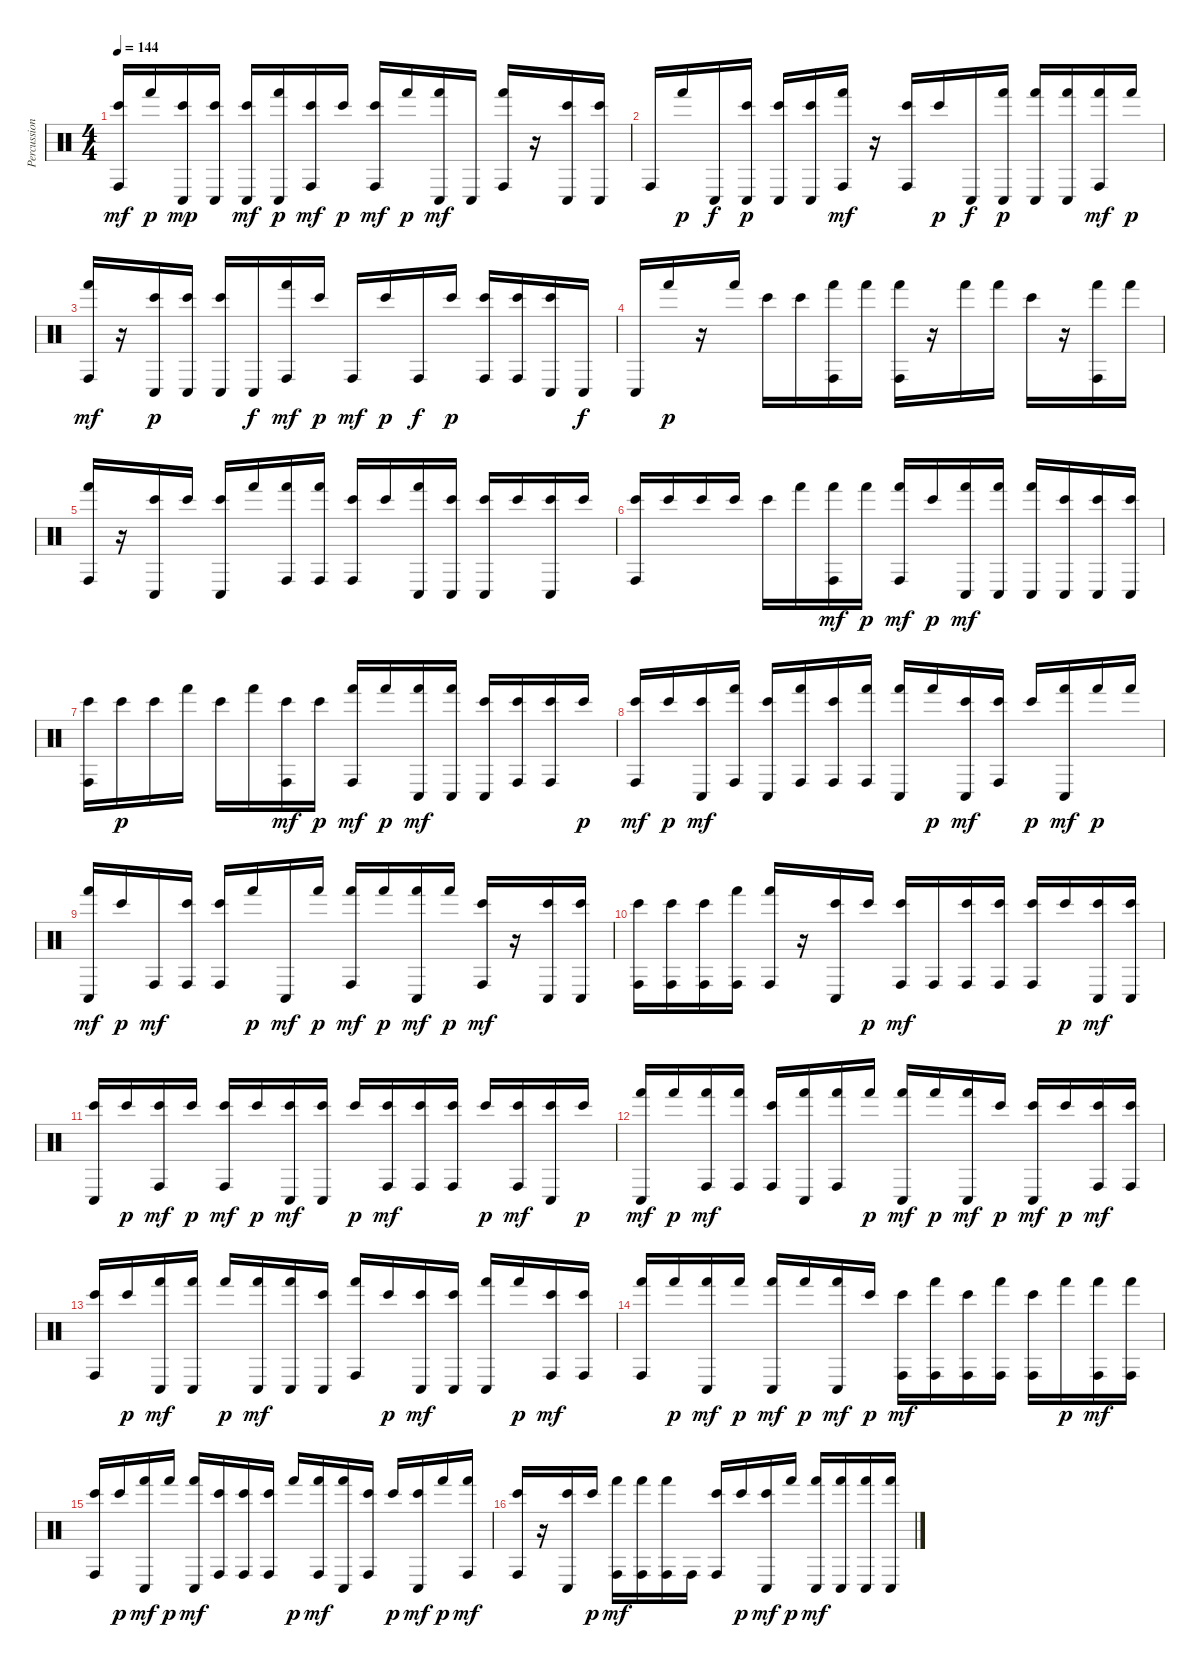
\track ("Percussions" "Percussion") {instrument percussion}
\staff {score}
\articulation defaults
\ts (4 4)
\tempo 144
\clef neutral
\ks c
("Bongo High (hit)" "Conga high (hit)").16{dy mf} "Hand (hit)".16{dy p} ("Bongo High (hit)" "Conga low (hit)").16{dy mp} ("Bongo High (hit)" "Conga low (hit)").16 ("Bongo High (hit)" "Conga low (hit)").16{dy mf} ("Hand (hit)" "Conga low (hit)").16{dy p} ("Bongo High (hit)" "Conga high (hit)").16{dy mf} "Bongo High (hit)".16{dy p} ("Bongo High (hit)" "Conga high (hit)").16{dy mf} "Hand (hit)".16{dy p} ("Hand (hit)" "Conga low (hit)").16{dy mf} "Conga low (hit)".16 ("Hand (hit)" "Conga high (hit)").16 r.16 ("Bongo High (hit)" "Conga low (hit)").16 ("Bongo High (hit)" "Conga low (hit)").16 |
"Conga high (hit)".16 "Hand (hit)".16{dy p} "Conga low (hit)".16{dy f} ("Bongo High (hit)" "Conga low (hit)").16{dy p} ("Bongo High (hit)" "Conga low (hit)").16 ("Bongo High (hit)" "Conga low (hit)").16 ("Hand (hit)" "Conga high (hit)").16{dy mf} r.16 ("Bongo High (hit)" "Conga high (hit)").16 "Bongo High (hit)".16{dy p} "Conga low (hit)".16{dy f} ("Hand (hit)" "Conga low (hit)").16{dy p} ("Hand (hit)" "Conga low (hit)").16 ("Hand (hit)" "Conga low (hit)").16 ("Hand (hit)" "Conga high (hit)").16{dy mf} "Hand (hit)".16{dy p} |
("Hand (hit)" "Conga high (hit)").16{dy mf} r.16 ("Bongo High (hit)" "Conga low (hit)").16{dy p} ("Bongo High (hit)" "Conga low (hit)").16 ("Bongo High (hit)" "Conga low (hit)").16 "Conga low (hit)".16{dy f} ("Hand (hit)" "Conga high (hit)").16{dy mf} "Bongo High (hit)".16{dy p} "Conga high (hit)".16{dy mf} "Bongo High (hit)".16{dy p} "Conga high (hit)".16{dy f} "Bongo High (hit)".16{dy p} ("Bongo High (hit)" "Conga high (hit)").16 ("Bongo High (hit)" "Conga high (hit)").16 ("Bongo High (hit)" "Conga low (hit)").16 "Conga low (hit)".16{dy f} |
"Conga low (hit)".16 "Hand (hit)".16{dy p} r.16 "Hand (hit)".16 "Bongo High (hit)".16 "Bongo High (hit)".16 ("Hand (hit)" "Conga high (hit)").16 "Hand (hit)".16 ("Hand (hit)" "Conga high (hit)").16 r.16 "Hand (hit)".16 "Hand (hit)".16 "Bongo High (hit)".16 r.16 ("Hand (hit)" "Conga high (hit)").16 "Hand (hit)".16 |
("Hand (hit)" "Conga high (hit)").16 r.16 ("Bongo High (hit)" "Conga low (hit)").16 "Bongo High (hit)".16 ("Bongo High (hit)" "Conga low (hit)").16 "Hand (hit)".16 ("Hand (hit)" "Conga high (hit)").16 ("Hand (hit)" "Conga high (hit)").16 ("Bongo High (hit)" "Conga high (hit)").16 "Bongo High (hit)".16 ("Hand (hit)" "Conga low (hit)").16 ("Bongo High (hit)" "Conga low (hit)").16 ("Bongo High (hit)" "Conga low (hit)").16 "Bongo High (hit)".16 ("Bongo High (hit)" "Conga low (hit)").16 "Bongo High (hit)".16 |
("Bongo High (hit)" "Conga high (hit)").16 "Bongo High (hit)".16 "Bongo High (hit)".16 "Bongo High (hit)".16 "Bongo High (hit)".16 "Hand (hit)".16 ("Hand (hit)" "Conga high (hit)").16{dy mf} "Hand (hit)".16{dy p} ("Hand (hit)" "Conga high (hit)").16{dy mf} "Bongo High (hit)".16{dy p} ("Hand (hit)" "Conga low (hit)").16{dy mf} ("Hand (hit)" "Conga low (hit)").16 ("Hand (hit)" "Conga low (hit)").16 ("Bongo High (hit)" "Conga low (hit)").16 ("Bongo High (hit)" "Conga low (hit)").16 ("Bongo High (hit)" "Conga low (hit)").16 |
("Bongo High (hit)" "Conga high (hit)").16 "Bongo High (hit)".16{dy p} "Bongo High (hit)".16 "Hand (hit)".16 "Bongo High (hit)".16 "Hand (hit)".16 ("Bongo High (hit)" "Conga high (hit)").16{dy mf} "Bongo High (hit)".16{dy p} ("Hand (hit)" "Conga high (hit)").16{dy mf} "Hand (hit)".16{dy p} ("Hand (hit)" "Conga low (hit)").16{dy mf} ("Hand (hit)" "Conga low (hit)").16 ("Bongo High (hit)" "Conga low (hit)").16 ("Bongo High (hit)" "Conga high (hit)").16 ("Bongo High (hit)" "Conga high (hit)").16 "Bongo High (hit)".16{dy p} |
("Bongo High (hit)" "Conga high (hit)").16{dy mf} "Bongo High (hit)".16{dy p} ("Bongo High (hit)" "Conga low (hit)").16{dy mf} ("Hand (hit)" "Conga high (hit)").16 ("Bongo High (hit)" "Conga low (hit)").16 ("Hand (hit)" "Conga high (hit)").16 ("Bongo High (hit)" "Conga high (hit)").16 ("Hand (hit)" "Conga high (hit)").16 ("Hand (hit)" "Conga low (hit)").16 "Hand (hit)".16{dy p} ("Bongo High (hit)" "Conga low (hit)").16{dy mf} ("Bongo High (hit)" "Conga high (hit)").16 "Bongo High (hit)".16{dy p} ("Hand (hit)" "Conga low (hit)").16{dy mf} "Hand (hit)".16{dy p} "Hand (hit)".16 |
("Hand (hit)" "Conga low (hit)").16{dy mf} "Bongo High (hit)".16{dy p} "Conga high (hit)".16{dy mf} ("Bongo High (hit)" "Conga high (hit)").16 ("Bongo High (hit)" "Conga high (hit)").16 "Hand (hit)".16{dy p} "Conga low (hit)".16{dy mf} "Hand (hit)".16{dy p} ("Hand (hit)" "Conga high (hit)").16{dy mf} "Hand (hit)".16{dy p} ("Hand (hit)" "Conga low (hit)").16{dy mf} "Hand (hit)".16{dy p} ("Bongo High (hit)" "Conga high (hit)").16{dy mf} r.16 ("Bongo High (hit)" "Conga low (hit)").16 ("Bongo High (hit)" "Conga low (hit)").16 |
("Bongo High (hit)" "Conga high (hit)").16 ("Bongo High (hit)" "Conga high (hit)").16 ("Bongo High (hit)" "Conga high (hit)").16 ("Hand (hit)" "Conga high (hit)").16 ("Hand (hit)" "Conga high (hit)").16 r.16 ("Bongo High (hit)" "Conga low (hit)").16 "Bongo High (hit)".16{dy p} ("Bongo High (hit)" "Conga high (hit)").16{dy mf} "Conga high (hit)".16 ("Bongo High (hit)" "Conga high (hit)").16 ("Bongo High (hit)" "Conga high (hit)").16 ("Bongo High (hit)" "Conga high (hit)").16 "Bongo High (hit)".16{dy p} ("Bongo High (hit)" "Conga low (hit)").16{dy mf} ("Bongo High (hit)" "Conga low (hit)").16 |
("Bongo High (hit)" "Conga low (hit)").16 "Bongo High (hit)".16{dy p} ("Bongo High (hit)" "Conga high (hit)").16{dy mf} "Bongo High (hit)".16{dy p} ("Bongo High (hit)" "Conga high (hit)").16{dy mf} "Bongo High (hit)".16{dy p} ("Bongo High (hit)" "Conga low (hit)").16{dy mf} ("Bongo High (hit)" "Conga low (hit)").16 "Bongo High (hit)".16{dy p} ("Bongo High (hit)" "Conga high (hit)").16{dy mf} ("Bongo High (hit)" "Conga high (hit)").16 ("Bongo High (hit)" "Conga high (hit)").16 "Bongo High (hit)".16{dy p} ("Bongo High (hit)" "Conga high (hit)").16{dy mf} ("Bongo High (hit)" "Conga low (hit)").16 "Bongo High (hit)".16{dy p} |
("Hand (hit)" "Conga low (hit)").16{dy mf} "Hand (hit)".16{dy p} ("Hand (hit)" "Conga high (hit)").16{dy mf} ("Hand (hit)" "Conga high (hit)").16 ("Bongo High (hit)" "Conga high (hit)").16 ("Hand (hit)" "Conga low (hit)").16 ("Hand (hit)" "Conga high (hit)").16 "Hand (hit)".16{dy p} ("Hand (hit)" "Conga low (hit)").16{dy mf} "Hand (hit)".16{dy p} ("Hand (hit)" "Conga low (hit)").16{dy mf} "Bongo High (hit)".16{dy p} ("Bongo High (hit)" "Conga low (hit)").16{dy mf} "Bongo High (hit)".16{dy p} ("Bongo High (hit)" "Conga high (hit)").16{dy mf} ("Bongo High (hit)" "Conga high (hit)").16 |
("Bongo High (hit)" "Conga high (hit)").16 "Bongo High (hit)".16{dy p} ("Hand (hit)" "Conga low (hit)").16{dy mf} ("Hand (hit)" "Conga low (hit)").16 "Hand (hit)".16{dy p} ("Hand (hit)" "Conga low (hit)").16{dy mf} ("Hand (hit)" "Conga low (hit)").16 ("Bongo High (hit)" "Conga low (hit)").16 ("Hand (hit)" "Conga high (hit)").16 "Bongo High (hit)".16{dy p} ("Bongo High (hit)" "Conga low (hit)").16{dy mf} ("Bongo High (hit)" "Conga low (hit)").16 ("Hand (hit)" "Conga low (hit)").16 "Hand (hit)".16{dy p} ("Bongo High (hit)" "Conga high (hit)").16{dy mf} ("Bongo High (hit)" "Conga high (hit)").16 |
("Hand (hit)" "Conga high (hit)").16 "Hand (hit)".16{dy p} ("Hand (hit)" "Conga low (hit)").16{dy mf} "Hand (hit)".16{dy p} ("Hand (hit)" "Conga low (hit)").16{dy mf} "Hand (hit)".16{dy p} ("Hand (hit)" "Conga low (hit)").16{dy mf} "Bongo High (hit)".16{dy p} ("Bongo High (hit)" "Conga high (hit)").16{dy mf} ("Hand (hit)" "Conga high (hit)").16 ("Bongo High (hit)" "Conga high (hit)").16 ("Hand (hit)" "Conga high (hit)").16 ("Bongo High (hit)" "Conga high (hit)").16 "Hand (hit)".16{dy p} ("Hand (hit)" "Conga high (hit)").16{dy mf} ("Hand (hit)" "Conga high (hit)").16 |
("Bongo High (hit)" "Conga high (hit)").16 "Bongo High (hit)".16{dy p} ("Hand (hit)" "Conga low (hit)").16{dy mf} "Hand (hit)".16{dy p} ("Hand (hit)" "Conga low (hit)").16{dy mf} ("Bongo High (hit)" "Conga high (hit)").16 ("Bongo High (hit)" "Conga high (hit)").16 ("Bongo High (hit)" "Conga high (hit)").16 "Hand (hit)".16{dy p} ("Hand (hit)" "Conga high (hit)").16{dy mf} ("Hand (hit)" "Conga low (hit)").16 ("Bongo High (hit)" "Conga high (hit)").16 "Bongo High (hit)".16{dy p} ("Bongo High (hit)" "Conga low (hit)").16{dy mf} "Hand (hit)".16{dy p} ("Hand (hit)" "Conga high (hit)").16{dy mf} |
("Bongo High (hit)" "Conga high (hit)").16 r.16 ("Bongo High (hit)" "Conga low (hit)").16 "Bongo High (hit)".16{dy p} ("Hand (hit)" "Conga high (hit)").16{dy mf} ("Hand (hit)" "Conga high (hit)").16 ("Hand (hit)" "Conga high (hit)").16 "Conga high (hit)".16 ("Bongo High (hit)" "Conga high (hit)").16 "Bongo High (hit)".16{dy p} ("Bongo High (hit)" "Conga low (hit)").16{dy mf} "Hand (hit)".16{dy p} ("Hand (hit)" "Conga low (hit)").16{dy mf} ("Hand (hit)" "Conga low (hit)").16 ("Hand (hit)" "Conga low (hit)").16 ("Hand (hit)" "Conga low (hit)").16
